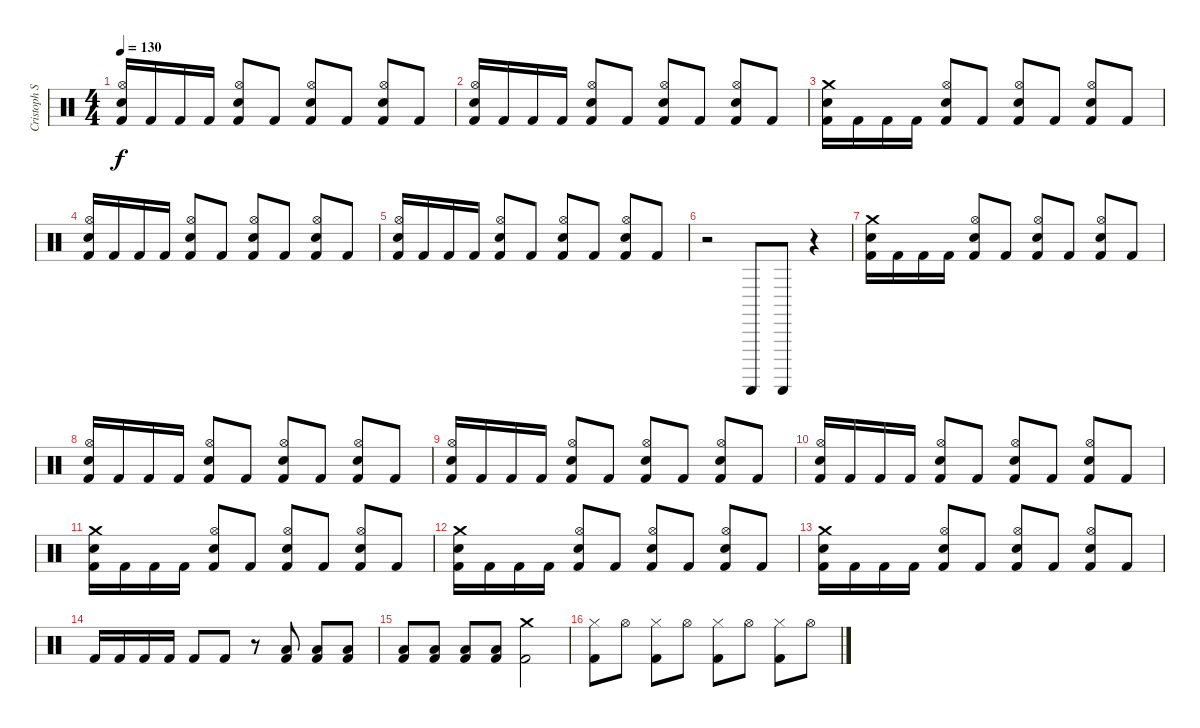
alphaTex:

\track ("Cristoph Schneider" "Cristoph S") {instrument percussion}
\staff {score}
\articulation defaults
\ts (4 4)
\tempo 130
\clef neutral
\ks c
("Kick (hit) 2" "Hi-Hat (open)" "Electric Snare (hit)").16{dy f} "Kick (hit) 2".16 "Kick (hit) 2".16 "Kick (hit) 2".16 ("Kick (hit) 2" "Hi-Hat (open)" "Electric Snare (hit)").8 "Kick (hit) 2".8 ("Kick (hit) 2" "Electric Snare (hit)" "Hi-Hat (open)").8 "Kick (hit) 2".8 ("Kick (hit) 2" "Hi-Hat (open)" "Electric Snare (hit)").8 "Kick (hit) 2".8 |
("Kick (hit) 2" "Hi-Hat (open)" "Electric Snare (hit)").16 "Kick (hit) 2".16 "Kick (hit) 2".16 "Kick (hit) 2".16 ("Kick (hit) 2" "Hi-Hat (open)" "Electric Snare (hit)").8 "Kick (hit) 2".8 ("Kick (hit) 2" "Electric Snare (hit)" "Hi-Hat (open)").8 "Kick (hit) 2".8 ("Kick (hit) 2" "Hi-Hat (open)" "Electric Snare (hit)").8 "Kick (hit) 2".8 |
("Kick (hit) 2" "Crash medium (hit)" "Electric Snare (hit)").16 "Kick (hit) 2".16 "Kick (hit) 2".16 "Kick (hit) 2".16 ("Kick (hit) 2" "Hi-Hat (open)" "Electric Snare (hit)").8 "Kick (hit) 2".8 ("Kick (hit) 2" "Electric Snare (hit)" "Hi-Hat (open)").8 "Kick (hit) 2".8 ("Kick (hit) 2" "Hi-Hat (open)" "Electric Snare (hit)").8 "Kick (hit) 2".8 |
("Kick (hit) 2" "Hi-Hat (open)" "Electric Snare (hit)").16 "Kick (hit) 2".16 "Kick (hit) 2".16 "Kick (hit) 2".16 ("Kick (hit) 2" "Hi-Hat (open)" "Electric Snare (hit)").8 "Kick (hit) 2".8 ("Kick (hit) 2" "Electric Snare (hit)" "Hi-Hat (open)").8 "Kick (hit) 2".8 ("Kick (hit) 2" "Hi-Hat (open)" "Electric Snare (hit)").8 "Kick (hit) 2".8 |
("Kick (hit) 2" "Hi-Hat (open)" "Electric Snare (hit)").16 "Kick (hit) 2".16 "Kick (hit) 2".16 "Kick (hit) 2".16 ("Kick (hit) 2" "Hi-Hat (open)" "Electric Snare (hit)").8 "Kick (hit) 2".8 ("Kick (hit) 2" "Electric Snare (hit)" "Hi-Hat (open)").8 "Kick (hit) 2".8 ("Kick (hit) 2" "Hi-Hat (open)" "Electric Snare (hit)").8 "Kick (hit) 2".8 |
r.2 "Guiro (scrap-return)".8{beam merge} "Guiro (scrap-return)".8 r.4 |
("Kick (hit) 2" "Crash medium (hit)" "Electric Snare (hit)").16 "Kick (hit) 2".16 "Kick (hit) 2".16 "Kick (hit) 2".16 ("Kick (hit) 2" "Hi-Hat (open)" "Electric Snare (hit)").8 "Kick (hit) 2".8 ("Kick (hit) 2" "Electric Snare (hit)" "Hi-Hat (open)").8 "Kick (hit) 2".8 ("Kick (hit) 2" "Hi-Hat (open)" "Electric Snare (hit)").8 "Kick (hit) 2".8 |
("Kick (hit) 2" "Hi-Hat (open)" "Electric Snare (hit)").16 "Kick (hit) 2".16 "Kick (hit) 2".16 "Kick (hit) 2".16 ("Kick (hit) 2" "Hi-Hat (open)" "Electric Snare (hit)").8 "Kick (hit) 2".8 ("Kick (hit) 2" "Electric Snare (hit)" "Hi-Hat (open)").8 "Kick (hit) 2".8 ("Kick (hit) 2" "Hi-Hat (open)" "Electric Snare (hit)").8 "Kick (hit) 2".8 |
("Kick (hit) 2" "Hi-Hat (open)" "Electric Snare (hit)").16 "Kick (hit) 2".16 "Kick (hit) 2".16 "Kick (hit) 2".16 ("Kick (hit) 2" "Hi-Hat (open)" "Electric Snare (hit)").8 "Kick (hit) 2".8 ("Kick (hit) 2" "Electric Snare (hit)" "Hi-Hat (open)").8 "Kick (hit) 2".8 ("Kick (hit) 2" "Hi-Hat (open)" "Electric Snare (hit)").8 "Kick (hit) 2".8 |
("Kick (hit) 2" "Hi-Hat (open)" "Electric Snare (hit)").16 "Kick (hit) 2".16 "Kick (hit) 2".16 "Kick (hit) 2".16 ("Kick (hit) 2" "Hi-Hat (open)" "Electric Snare (hit)").8 "Kick (hit) 2".8 ("Kick (hit) 2" "Electric Snare (hit)" "Hi-Hat (open)").8 "Kick (hit) 2".8 ("Kick (hit) 2" "Hi-Hat (open)" "Electric Snare (hit)").8 "Kick (hit) 2".8 |
("Kick (hit) 2" "Crash medium (hit)" "Electric Snare (hit)").16 "Kick (hit) 2".16 "Kick (hit) 2".16 "Kick (hit) 2".16 ("Kick (hit) 2" "Hi-Hat (open)" "Electric Snare (hit)").8 "Kick (hit) 2".8 ("Kick (hit) 2" "Electric Snare (hit)" "Hi-Hat (open)").8 "Kick (hit) 2".8 ("Kick (hit) 2" "Hi-Hat (open)" "Electric Snare (hit)").8 "Kick (hit) 2".8 |
("Kick (hit) 2" "Crash medium (hit)" "Electric Snare (hit)").16 "Kick (hit) 2".16 "Kick (hit) 2".16 "Kick (hit) 2".16 ("Kick (hit) 2" "Hi-Hat (open)" "Electric Snare (hit)").8 "Kick (hit) 2".8 ("Kick (hit) 2" "Electric Snare (hit)" "Hi-Hat (open)").8 "Kick (hit) 2".8 ("Kick (hit) 2" "Hi-Hat (open)" "Electric Snare (hit)").8 "Kick (hit) 2".8 |
("Kick (hit) 2" "Crash medium (hit)" "Electric Snare (hit)").16 "Kick (hit) 2".16 "Kick (hit) 2".16 "Kick (hit) 2".16 ("Kick (hit) 2" "Hi-Hat (open)" "Electric Snare (hit)").8 "Kick (hit) 2".8 ("Kick (hit) 2" "Electric Snare (hit)" "Hi-Hat (open)").8 "Kick (hit) 2".8 ("Kick (hit) 2" "Hi-Hat (open)" "Electric Snare (hit)").8 "Kick (hit) 2".8 |
"Kick (hit) 2".16 "Kick (hit) 2".16 "Kick (hit) 2".16 "Kick (hit) 2".16 "Kick (hit) 2".8 "Kick (hit) 2".8 r.8 ("Kick (hit) 2" "Low Floor Tom (hit)").8 ("Kick (hit) 2" "Low Floor Tom (hit)").8 ("Kick (hit) 2" "Low Floor Tom (hit)").8 |
("Kick (hit) 2" "Low Floor Tom (hit)").8 ("Kick (hit) 2" "Low Floor Tom (hit)").8 ("Kick (hit) 2" "Low Floor Tom (hit)").8 ("Kick (hit) 2" "Low Floor Tom (hit)").8 ("Crash medium (hit)" "Kick (hit) 2").2 |
("Hi-Hat (closed)" "Kick (hit) 2").8 "Hi-Hat (open)".8 ("Hi-Hat (closed)" "Kick (hit) 2").8 "Hi-Hat (open)".8 ("Hi-Hat (closed)" "Kick (hit) 2").8 "Hi-Hat (open)".8 ("Hi-Hat (closed)" "Kick (hit) 2").8 "Hi-Hat (open)".8
